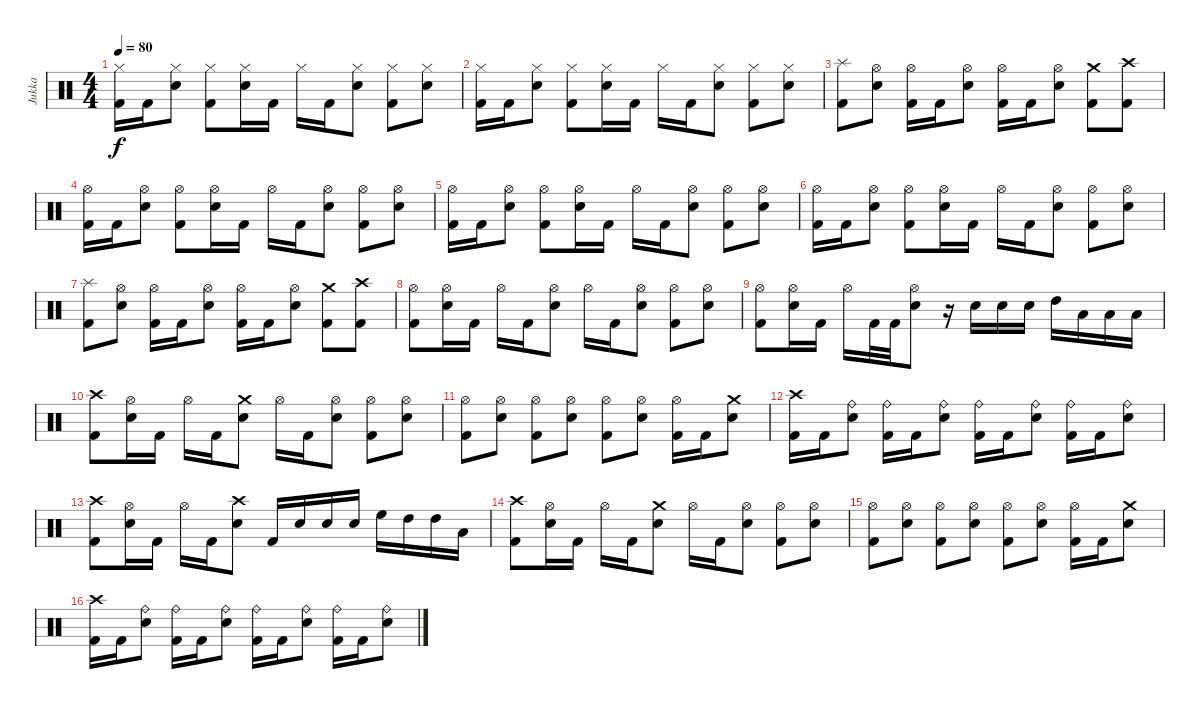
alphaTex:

\track ("Jukka" "Jukka") {instrument percussion}
\staff {score}
\articulation defaults
\ts (4 4)
\tempo 80
\clef neutral
\ks c
("Hi-Hat (closed)" "Kick (hit) 2").16{dy f} "Kick (hit) 2".16 ("Hi-Hat (closed)" "Electric Snare (hit)").8 ("Hi-Hat (closed)" "Kick (hit) 2").8 ("Hi-Hat (closed)" "Electric Snare (hit)").16 "Kick (hit) 2".16 "Hi-Hat (closed)".16 "Kick (hit) 2".16 ("Hi-Hat (closed)" "Electric Snare (hit)").8 ("Hi-Hat (closed)" "Kick (hit) 2").8 ("Hi-Hat (closed)" "Electric Snare (hit)").8 |
("Hi-Hat (closed)" "Kick (hit) 2").16 "Kick (hit) 2".16 ("Hi-Hat (closed)" "Electric Snare (hit)").8 ("Hi-Hat (closed)" "Kick (hit) 2").8 ("Hi-Hat (closed)" "Electric Snare (hit)").16 "Kick (hit) 2".16 "Hi-Hat (closed)".16 "Kick (hit) 2".16 ("Hi-Hat (closed)" "Electric Snare (hit)").8 ("Hi-Hat (closed)" "Kick (hit) 2").8 ("Hi-Hat (closed)" "Electric Snare (hit)").8 |
("Splash (hit)" "Kick (hit) 2").8 ("Hi-Hat (open)" "Electric Snare (hit)").8 ("Hi-Hat (open)" "Kick (hit) 2").16 "Kick (hit) 2".16 ("Hi-Hat (open)" "Electric Snare (hit)").8 ("Hi-Hat (open)" "Kick (hit) 2").16 "Kick (hit) 2".16 ("Hi-Hat (open)" "Electric Snare (hit)").8 ("Crash medium (hit)" "Kick (hit) 2").8 ("Crash high (hit)" "Kick (hit) 2").8 |
("Hi-Hat (open)" "Kick (hit) 2").16 "Kick (hit) 2".16 ("Hi-Hat (open)" "Electric Snare (hit)").8 ("Hi-Hat (open)" "Kick (hit) 2").8 ("Hi-Hat (open)" "Electric Snare (hit)").16 "Kick (hit) 2".16 "Hi-Hat (open)".16 "Kick (hit) 2".16 ("Hi-Hat (open)" "Electric Snare (hit)").8 ("Hi-Hat (open)" "Kick (hit) 2").8 ("Hi-Hat (open)" "Electric Snare (hit)").8 |
("Hi-Hat (open)" "Kick (hit) 2").16 "Kick (hit) 2".16 ("Hi-Hat (open)" "Electric Snare (hit)").8 ("Hi-Hat (open)" "Kick (hit) 2").8 ("Hi-Hat (open)" "Electric Snare (hit)").16 "Kick (hit) 2".16 "Hi-Hat (open)".16 "Kick (hit) 2".16 ("Hi-Hat (open)" "Electric Snare (hit)").8 ("Hi-Hat (open)" "Kick (hit) 2").8 ("Hi-Hat (open)" "Electric Snare (hit)").8 |
("Hi-Hat (open)" "Kick (hit) 2").16 "Kick (hit) 2".16 ("Hi-Hat (open)" "Electric Snare (hit)").8 ("Hi-Hat (open)" "Kick (hit) 2").8 ("Hi-Hat (open)" "Electric Snare (hit)").16 "Kick (hit) 2".16 "Hi-Hat (open)".16 "Kick (hit) 2".16 ("Hi-Hat (open)" "Electric Snare (hit)").8 ("Hi-Hat (open)" "Kick (hit) 2").8 ("Hi-Hat (open)" "Electric Snare (hit)").8 |
("Splash (hit)" "Kick (hit) 2").8 ("Hi-Hat (open)" "Electric Snare (hit)").8 ("Hi-Hat (open)" "Kick (hit) 2").16 "Kick (hit) 2".16 ("Hi-Hat (open)" "Electric Snare (hit)").8 ("Hi-Hat (open)" "Kick (hit) 2").16 "Kick (hit) 2".16 ("Hi-Hat (open)" "Electric Snare (hit)").8 ("Crash medium (hit)" "Kick (hit) 2").8 ("Crash high (hit)" "Kick (hit) 2").8 |
("Hi-Hat (open)" "Kick (hit) 2").8 ("Hi-Hat (open)" "Electric Snare (hit)").16 "Kick (hit) 2".16 "Hi-Hat (open)".16 "Kick (hit) 2".16 ("Hi-Hat (open)" "Electric Snare (hit)").8 "Hi-Hat (open)".16 "Kick (hit) 2".16 ("Hi-Hat (open)" "Electric Snare (hit)").8 ("Hi-Hat (open)" "Kick (hit) 2").8 ("Hi-Hat (open)" "Electric Snare (hit)").8 |
("Hi-Hat (open)" "Kick (hit) 2").8 ("Hi-Hat (open)" "Electric Snare (hit)").16 "Kick (hit) 2".16 "Hi-Hat (open)".16 "Kick (hit) 2".32 "Kick (hit) 2".32 ("Hi-Hat (open)" "Electric Snare (hit)").8 r.16 "Electric Snare (hit)".16 "Electric Snare (hit)".16 "Electric Snare (hit)".16 "High Tom (hit)".16 "Low Tom (hit)".16 "Low Tom (hit)".16 "Low Tom (hit)".16 |
("Crash high (hit)" "Kick (hit) 2").8 ("Hi-Hat (open)" "Electric Snare (hit)").16 "Kick (hit) 2".16 "Hi-Hat (open)".16 "Kick (hit) 2".16 ("Crash medium (hit)" "Electric Snare (hit)").8 "Hi-Hat (open)".16 "Kick (hit) 2".16 ("Hi-Hat (open)" "Electric Snare (hit)").8 ("Hi-Hat (open)" "Kick (hit) 2").8 ("Hi-Hat (open)" "Electric Snare (hit)").8 |
("Hi-Hat (open)" "Kick (hit) 2").8 ("Hi-Hat (open)" "Electric Snare (hit)").8 ("Hi-Hat (open)" "Kick (hit) 2").8 ("Hi-Hat (open)" "Electric Snare (hit)").8 ("Hi-Hat (open)" "Kick (hit) 2").8 ("Hi-Hat (open)" "Electric Snare (hit)").8 ("Hi-Hat (open)" "Kick (hit) 2").16 "Kick (hit) 2".16 ("Crash medium (hit)" "Electric Snare (hit)").8 |
("Crash high (hit)" "Kick (hit) 2").16 "Kick (hit) 2".16 ("Ride (bell)" "Electric Snare (hit)").8 ("Ride (bell)" "Kick (hit) 2").16 "Kick (hit) 2".16 ("Ride (bell)" "Electric Snare (hit)").8 ("Ride (bell)" "Kick (hit) 2").16 "Kick (hit) 2".16 ("Ride (bell)" "Electric Snare (hit)").8 ("Ride (bell)" "Kick (hit) 2").16 "Kick (hit) 2".16 ("Ride (bell)" "Electric Snare (hit)").8 |
("Crash high (hit)" "Kick (hit) 2").8 ("Hi-Hat (open)" "Electric Snare (hit)").16 "Kick (hit) 2".16 "Hi-Hat (open)".16 "Kick (hit) 2".16 ("Crash high (hit)" "Electric Snare (hit)").8 "Kick (hit) 2".16 "Electric Snare (hit)".16 "Electric Snare (hit)".16 "Electric Snare (hit)".16 "High Floor Tom (hit)".16 "High Tom (hit)".16 "High Tom (hit)".16 "Low Tom (hit)".16 |
("Crash high (hit)" "Kick (hit) 2").8 ("Hi-Hat (open)" "Electric Snare (hit)").16 "Kick (hit) 2".16 "Hi-Hat (open)".16 "Kick (hit) 2".16 ("Crash medium (hit)" "Electric Snare (hit)").8 "Hi-Hat (open)".16 "Kick (hit) 2".16 ("Hi-Hat (open)" "Electric Snare (hit)").8 ("Hi-Hat (open)" "Kick (hit) 2").8 ("Hi-Hat (open)" "Electric Snare (hit)").8 |
("Hi-Hat (open)" "Kick (hit) 2").8 ("Hi-Hat (open)" "Electric Snare (hit)").8 ("Hi-Hat (open)" "Kick (hit) 2").8 ("Hi-Hat (open)" "Electric Snare (hit)").8 ("Hi-Hat (open)" "Kick (hit) 2").8 ("Hi-Hat (open)" "Electric Snare (hit)").8 ("Hi-Hat (open)" "Kick (hit) 2").16 "Kick (hit) 2".16 ("Crash medium (hit)" "Electric Snare (hit)").8 |
("Crash high (hit)" "Kick (hit) 2").16 "Kick (hit) 2".16 ("Ride (bell)" "Electric Snare (hit)").8 ("Ride (bell)" "Kick (hit) 2").16 "Kick (hit) 2".16 ("Ride (bell)" "Electric Snare (hit)").8 ("Ride (bell)" "Kick (hit) 2").16 "Kick (hit) 2".16 ("Ride (bell)" "Electric Snare (hit)").8 ("Ride (bell)" "Kick (hit) 2").16 "Kick (hit) 2".16 ("Ride (bell)" "Electric Snare (hit)").8
